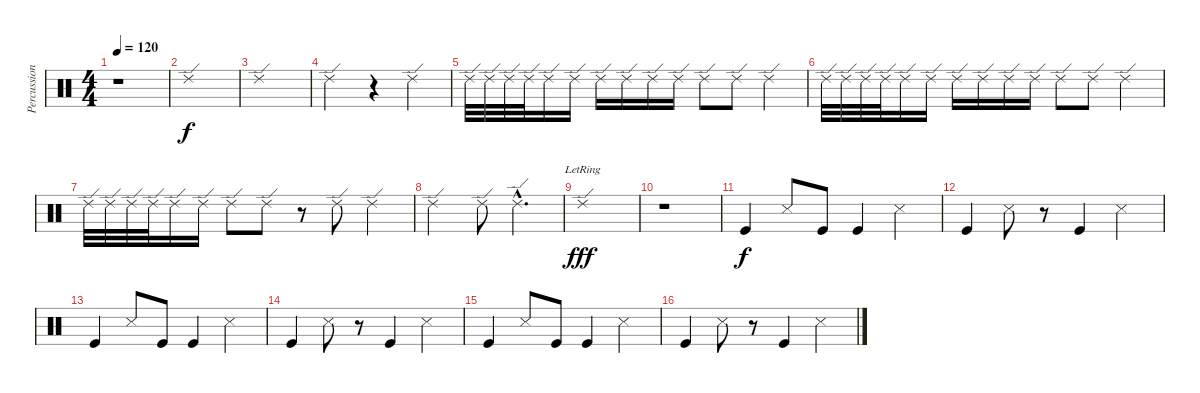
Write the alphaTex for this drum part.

\track ("Percussion" "Percussion") {instrument percussion}
\staff {score}
\articulation defaults
\ts (4 4)
\tempo 120
\clef neutral
\ks c
r.1{dy f} |
"Ride (edge) 2".1 |
"Ride (edge) 2".1 |
"Ride (edge) 2".2 r.4 "Ride (edge) 2".4 |
"Ride (edge) 2".32 "Ride (edge) 2".32 "Ride (edge) 2".32 "Ride (edge) 2".32 "Ride (edge) 2".16 "Ride (edge) 2".16 "Ride (edge) 2".16 "Ride (edge) 2".16 "Ride (edge) 2".16 "Ride (edge) 2".16 "Ride (edge) 2".8 "Ride (edge) 2".8 "Ride (edge) 2".4 |
"Ride (edge) 2".32 "Ride (edge) 2".32 "Ride (edge) 2".32 "Ride (edge) 2".32 "Ride (edge) 2".16 "Ride (edge) 2".16 "Ride (edge) 2".16 "Ride (edge) 2".16 "Ride (edge) 2".16 "Ride (edge) 2".16 "Ride (edge) 2".8 "Ride (edge) 2".8 "Ride (edge) 2".4 |
"Ride (edge) 2".32 "Ride (edge) 2".32 "Ride (edge) 2".32 "Ride (edge) 2".32 "Ride (edge) 2".16 "Ride (edge) 2".16 "Ride (edge) 2".8 "Ride (edge) 2".8 r.8 "Ride (edge) 2".8 "Ride (edge) 2".4 |
"Ride (edge) 2".2 "Ride (edge) 2".8 "Ride (edge) 2"{hac}.4{d} |
"Ride (edge) 2"{lr}.1{dy fff} |
r.1 |
"Kick (hit)".4{dy f} "Snare (side stick) 3".8 "Kick (hit)".8 "Kick (hit)".4 "Snare (side stick) 3".4 |
"Kick (hit)".4 "Snare (side stick) 3".8 r.8 "Kick (hit)".4 "Snare (side stick) 3".4 |
"Kick (hit)".4 "Snare (side stick) 3".8 "Kick (hit)".8 "Kick (hit)".4 "Snare (side stick) 3".4 |
"Kick (hit)".4 "Snare (side stick) 3".8 r.8 "Kick (hit)".4 "Snare (side stick) 3".4 |
"Kick (hit)".4 "Snare (side stick) 3".8 "Kick (hit)".8 "Kick (hit)".4 "Snare (side stick) 3".4 |
"Kick (hit)".4 "Snare (side stick) 3".8 r.8 "Kick (hit)".4 "Snare (side stick) 3".4
